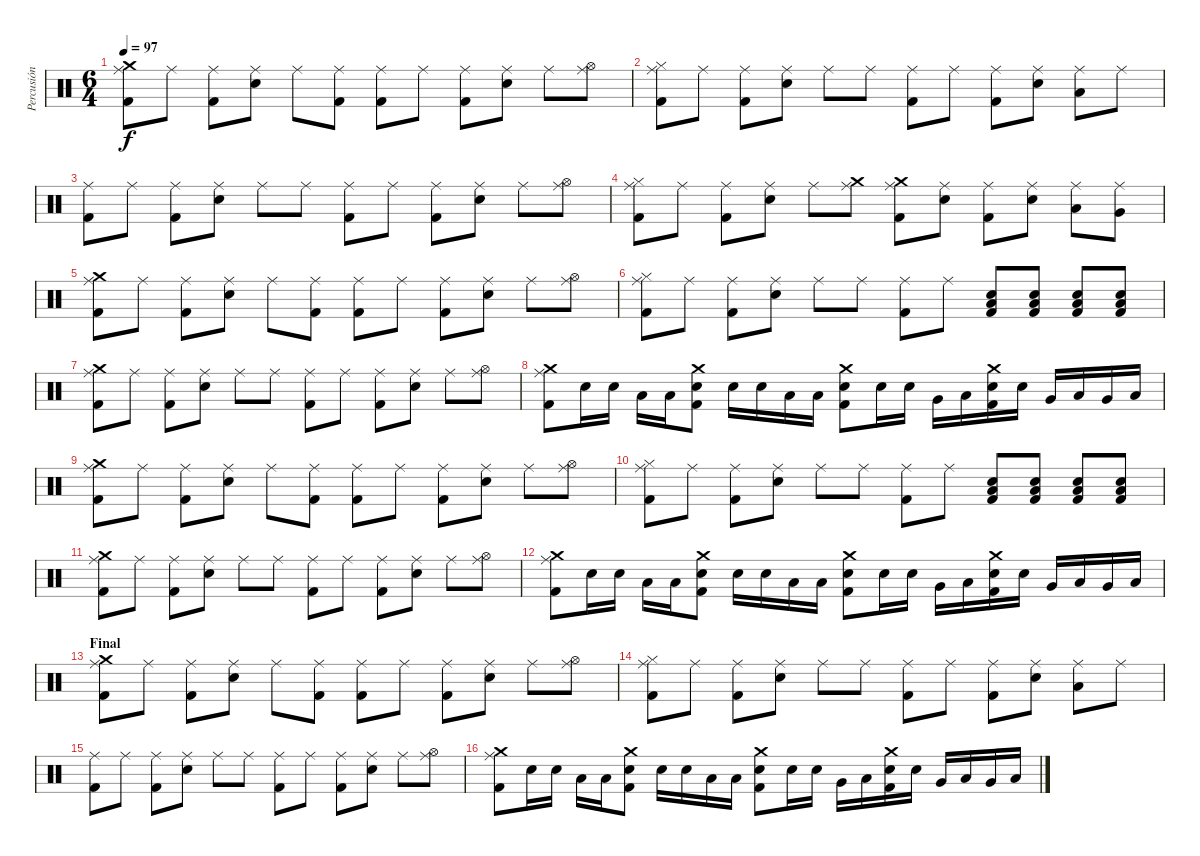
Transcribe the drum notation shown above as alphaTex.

\track ("Percusión" "Percusión") {instrument percussion}
\staff {score}
\articulation defaults
\ts (6 4)
\tempo 97
\clef neutral
\ks c
("Crash medium (hit)" "Ride (middle)" "Kick (hit) 2").8{dy f} "Ride (middle)".8 ("Ride (middle)" "Kick (hit) 2").8 ("Ride (middle)" "Electric Snare (hit)").8 "Ride (middle)".8 ("Ride (middle)" "Kick (hit) 2").8 ("Ride (middle)" "Kick (hit) 2").8 "Ride (middle)".8 ("Ride (middle)" "Kick (hit) 2").8 ("Ride (middle)" "Electric Snare (hit)").8 "Ride (middle)".8 ("Ride (middle)" "Hi-Hat (open)").8 |
("Ride (middle)" "Kick (hit) 2" "Hi-Hat (closed)").8 "Ride (middle)".8 ("Ride (middle)" "Kick (hit) 2").8 ("Ride (middle)" "Electric Snare (hit)").8 "Ride (middle)".8 "Ride (middle)".8 ("Ride (middle)" "Kick (hit) 2").8 "Ride (middle)".8 ("Ride (middle)" "Kick (hit) 2").8 ("Ride (middle)" "Electric Snare (hit)").8 ("Ride (middle)" "Low Floor Tom (hit)").8 "Ride (middle)".8 |
("Ride (middle)" "Kick (hit) 2").8 "Ride (middle)".8 ("Ride (middle)" "Kick (hit) 2").8 ("Ride (middle)" "Electric Snare (hit)").8 "Ride (middle)".8 "Ride (middle)".8 ("Ride (middle)" "Kick (hit) 2").8 "Ride (middle)".8 ("Ride (middle)" "Kick (hit) 2").8 ("Ride (middle)" "Electric Snare (hit)").8 "Ride (middle)".8 ("Ride (middle)" "Hi-Hat (open)").8 |
("Ride (middle)" "Hi-Hat (closed)" "Kick (hit) 2").8 "Ride (middle)".8 ("Ride (middle)" "Kick (hit) 2").8 ("Ride (middle)" "Electric Snare (hit)").8 "Ride (middle)".8 ("Ride (middle)" "Crash medium (hit)").8 ("Ride (middle)" "Crash medium (hit)" "Kick (hit) 2").8 ("Ride (middle)" "Electric Snare (hit)").8 ("Ride (middle)" "Kick (hit) 2").8 ("Ride (middle)" "Electric Snare (hit)").8 ("Ride (middle)" "Low Floor Tom (hit)").8 ("Ride (middle)" "Very Low Tom (hit)").8 |
("Crash medium (hit)" "Ride (middle)" "Kick (hit) 2").8 "Ride (middle)".8 ("Ride (middle)" "Kick (hit) 2").8 ("Ride (middle)" "Electric Snare (hit)").8 "Ride (middle)".8 ("Ride (middle)" "Kick (hit) 2").8 ("Ride (middle)" "Kick (hit) 2").8 "Ride (middle)".8 ("Ride (middle)" "Kick (hit) 2").8 ("Ride (middle)" "Electric Snare (hit)").8 "Ride (middle)".8 ("Ride (middle)" "Hi-Hat (open)").8 |
("Ride (middle)" "Kick (hit) 2" "Hi-Hat (closed)").8 "Ride (middle)".8 ("Ride (middle)" "Kick (hit) 2").8 ("Ride (middle)" "Electric Snare (hit)").8 "Ride (middle)".8 "Ride (middle)".8 ("Ride (middle)" "Kick (hit) 2").8 "Ride (middle)".8 ("Electric Snare (hit)" "Kick (hit) 2" "Low Floor Tom (hit)").8 ("Electric Snare (hit)" "Kick (hit) 2" "Low Floor Tom (hit)").8 ("Electric Snare (hit)" "Kick (hit) 2" "Low Floor Tom (hit)").8 ("Electric Snare (hit)" "Kick (hit) 2" "Low Floor Tom (hit)").8 |
("Crash medium (hit)" "Ride (middle)" "Kick (hit) 2").8 "Ride (middle)".8 ("Ride (middle)" "Kick (hit) 2").8 ("Ride (middle)" "Electric Snare (hit)").8 "Ride (middle)".8 "Ride (middle)".8 ("Ride (middle)" "Kick (hit) 2").8 "Ride (middle)".8 ("Ride (middle)" "Kick (hit) 2").8 ("Ride (middle)" "Electric Snare (hit)").8 "Ride (middle)".8 ("Ride (middle)" "Hi-Hat (open)").8 |
("Ride (middle)" "Crash medium (hit)" "Kick (hit) 2").8 "Electric Snare (hit)".16 "Electric Snare (hit)".16 "Low Tom (hit)".16 "Low Floor Tom (hit)".16 ("Kick (hit) 2" "Electric Snare (hit)" "Crash medium (hit)").8 "Electric Snare (hit)".16 "Electric Snare (hit)".16 "Low Tom (hit)".16 "Low Floor Tom (hit)".16 ("Kick (hit) 2" "Electric Snare (hit)" "Crash medium (hit)").8 "Electric Snare (hit)".16 "Electric Snare (hit)".16 "Very Low Tom (hit)".16 "Low Floor Tom (hit)".16 ("Kick (hit) 2" "Crash medium (hit)" "Electric Snare (hit)").16 "Electric Snare (hit)".16 "Very Low Tom (hit)".16 "Low Tom (hit)".16 "Very Low Tom (hit)".16 "Low Floor Tom (hit)".16 |
("Crash medium (hit)" "Ride (middle)" "Kick (hit) 2").8 "Ride (middle)".8 ("Ride (middle)" "Kick (hit) 2").8 ("Ride (middle)" "Electric Snare (hit)").8 "Ride (middle)".8 ("Ride (middle)" "Kick (hit) 2").8 ("Ride (middle)" "Kick (hit) 2").8 "Ride (middle)".8 ("Ride (middle)" "Kick (hit) 2").8 ("Ride (middle)" "Electric Snare (hit)").8 "Ride (middle)".8 ("Ride (middle)" "Hi-Hat (open)").8 |
("Ride (middle)" "Kick (hit) 2" "Hi-Hat (closed)").8 "Ride (middle)".8 ("Ride (middle)" "Kick (hit) 2").8 ("Ride (middle)" "Electric Snare (hit)").8 "Ride (middle)".8 "Ride (middle)".8 ("Ride (middle)" "Kick (hit) 2").8 "Ride (middle)".8 ("Electric Snare (hit)" "Kick (hit) 2" "Low Floor Tom (hit)").8 ("Electric Snare (hit)" "Kick (hit) 2" "Low Floor Tom (hit)").8 ("Electric Snare (hit)" "Kick (hit) 2" "Low Floor Tom (hit)").8 ("Electric Snare (hit)" "Kick (hit) 2" "Low Floor Tom (hit)").8 |
("Crash medium (hit)" "Ride (middle)" "Kick (hit) 2").8 "Ride (middle)".8 ("Ride (middle)" "Kick (hit) 2").8 ("Ride (middle)" "Electric Snare (hit)").8 "Ride (middle)".8 "Ride (middle)".8 ("Ride (middle)" "Kick (hit) 2").8 "Ride (middle)".8 ("Ride (middle)" "Kick (hit) 2").8 ("Ride (middle)" "Electric Snare (hit)").8 "Ride (middle)".8 ("Ride (middle)" "Hi-Hat (open)").8 |
("Ride (middle)" "Crash medium (hit)" "Kick (hit) 2").8 "Electric Snare (hit)".16 "Electric Snare (hit)".16 "Low Tom (hit)".16 "Low Floor Tom (hit)".16 ("Kick (hit) 2" "Electric Snare (hit)" "Crash medium (hit)").8 "Electric Snare (hit)".16 "Electric Snare (hit)".16 "Low Tom (hit)".16 "Low Floor Tom (hit)".16 ("Kick (hit) 2" "Electric Snare (hit)" "Crash medium (hit)").8 "Electric Snare (hit)".16 "Electric Snare (hit)".16 "Very Low Tom (hit)".16 "Low Floor Tom (hit)".16 ("Kick (hit) 2" "Crash medium (hit)" "Electric Snare (hit)").16 "Electric Snare (hit)".16 "Very Low Tom (hit)".16 "Low Tom (hit)".16 "Very Low Tom (hit)".16 "Low Floor Tom (hit)".16 |
\section ("" "Final")
("Crash medium (hit)" "Ride (middle)" "Kick (hit) 2").8 "Ride (middle)".8 ("Ride (middle)" "Kick (hit) 2").8 ("Ride (middle)" "Electric Snare (hit)").8 "Ride (middle)".8 ("Ride (middle)" "Kick (hit) 2").8 ("Ride (middle)" "Kick (hit) 2").8 "Ride (middle)".8 ("Ride (middle)" "Kick (hit) 2").8 ("Ride (middle)" "Electric Snare (hit)").8 "Ride (middle)".8 ("Ride (middle)" "Hi-Hat (open)").8 |
("Ride (middle)" "Kick (hit) 2" "Hi-Hat (closed)").8 "Ride (middle)".8 ("Ride (middle)" "Kick (hit) 2").8 ("Ride (middle)" "Electric Snare (hit)").8 "Ride (middle)".8 "Ride (middle)".8 ("Ride (middle)" "Kick (hit) 2").8 "Ride (middle)".8 ("Ride (middle)" "Kick (hit) 2").8 ("Ride (middle)" "Electric Snare (hit)").8 ("Ride (middle)" "Low Floor Tom (hit)").8 "Ride (middle)".8 |
("Ride (middle)" "Kick (hit) 2").8 "Ride (middle)".8 ("Ride (middle)" "Kick (hit) 2").8 ("Ride (middle)" "Electric Snare (hit)").8 "Ride (middle)".8 "Ride (middle)".8 ("Ride (middle)" "Kick (hit) 2").8 "Ride (middle)".8 ("Ride (middle)" "Kick (hit) 2").8 ("Ride (middle)" "Electric Snare (hit)").8 "Ride (middle)".8 ("Ride (middle)" "Hi-Hat (open)").8 |
("Ride (middle)" "Crash medium (hit)" "Kick (hit) 2").8 "Electric Snare (hit)".16 "Electric Snare (hit)".16 "Low Tom (hit)".16 "Low Floor Tom (hit)".16 ("Kick (hit) 2" "Electric Snare (hit)" "Crash medium (hit)").8 "Electric Snare (hit)".16 "Electric Snare (hit)".16 "Low Tom (hit)".16 "Low Floor Tom (hit)".16 ("Kick (hit) 2" "Electric Snare (hit)" "Crash medium (hit)").8 "Electric Snare (hit)".16 "Electric Snare (hit)".16 "Very Low Tom (hit)".16 "Low Floor Tom (hit)".16 ("Kick (hit) 2" "Crash medium (hit)" "Electric Snare (hit)").16 "Electric Snare (hit)".16 "Very Low Tom (hit)".16 "Low Tom (hit)".16 "Very Low Tom (hit)".16 "Low Floor Tom (hit)".16
